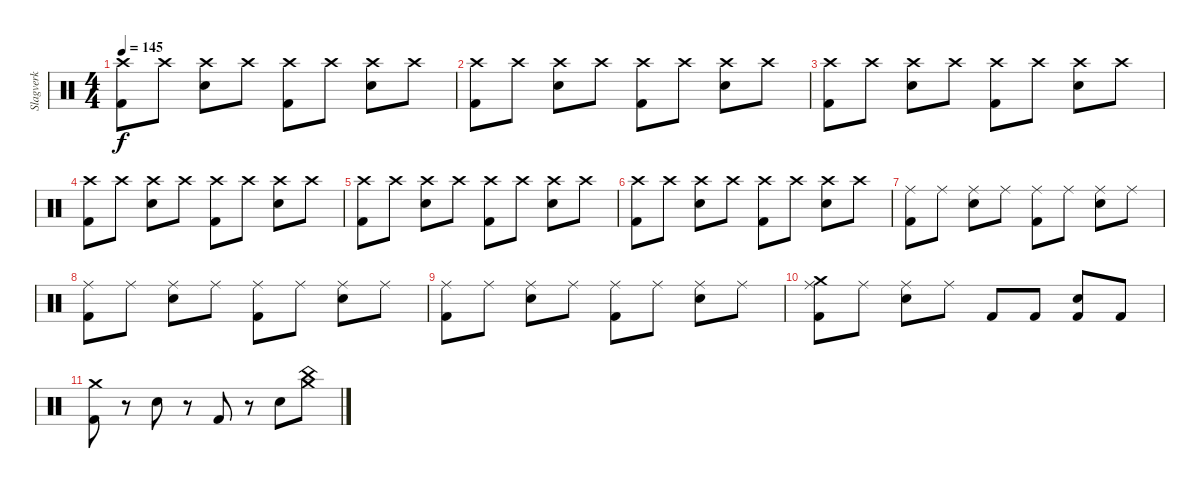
\track ("Slagverk" "Slagverk") {instrument percussion}
\staff {score}
\articulation defaults
\ts (4 4)
\tempo 145
\clef neutral
\ks c
("Crash high (hit)" "Kick (hit) 2").8{dy f} "Crash high (hit)".8 ("Crash high (hit)" "Snare (hit) 2").8 "Crash high (hit)".8 ("Crash high (hit)" "Kick (hit) 2").8 "Crash high (hit)".8 ("Crash high (hit)" "Snare (hit) 2").8 "Crash high (hit)".8 |
("Crash high (hit)" "Kick (hit) 2").8 "Crash high (hit)".8 ("Crash high (hit)" "Snare (hit) 2").8 "Crash high (hit)".8 ("Crash high (hit)" "Kick (hit) 2").8 "Crash high (hit)".8 ("Crash high (hit)" "Snare (hit) 2").8 "Crash high (hit)".8 |
("Crash high (hit)" "Kick (hit) 2").8 "Crash high (hit)".8 ("Crash high (hit)" "Snare (hit) 2").8 "Crash high (hit)".8 ("Crash high (hit)" "Kick (hit) 2").8 "Crash high (hit)".8 ("Crash high (hit)" "Snare (hit) 2").8 "Crash high (hit)".8 |
("Crash high (hit)" "Kick (hit) 2").8 "Crash high (hit)".8 ("Crash high (hit)" "Snare (hit) 2").8 "Crash high (hit)".8 ("Crash high (hit)" "Kick (hit) 2").8 "Crash high (hit)".8 ("Crash high (hit)" "Snare (hit) 2").8 "Crash high (hit)".8 |
("Crash high (hit)" "Kick (hit) 2").8 "Crash high (hit)".8 ("Crash high (hit)" "Snare (hit) 2").8 "Crash high (hit)".8 ("Crash high (hit)" "Kick (hit) 2").8 "Crash high (hit)".8 ("Crash high (hit)" "Snare (hit) 2").8 "Crash high (hit)".8 |
("Crash high (hit)" "Kick (hit) 2").8 "Crash high (hit)".8 ("Crash high (hit)" "Snare (hit) 2").8 "Crash high (hit)".8 ("Crash high (hit)" "Kick (hit) 2").8 "Crash high (hit)".8 ("Crash high (hit)" "Snare (hit) 2").8 "Crash high (hit)".8 |
("Ride (middle)" "Kick (hit) 2").8 "Ride (middle)".8 ("Ride (middle)" "Snare (hit) 2").8 "Ride (middle)".8 ("Ride (middle)" "Kick (hit) 2").8 "Ride (middle)".8 ("Ride (middle)" "Snare (hit) 2").8 "Ride (middle)".8 |
("Ride (middle)" "Kick (hit) 2").8 "Ride (middle)".8 ("Ride (middle)" "Snare (hit) 2").8 "Ride (middle)".8 ("Ride (middle)" "Kick (hit) 2").8 "Ride (middle)".8 ("Ride (middle)" "Snare (hit) 2").8 "Ride (middle)".8 |
("Ride (middle)" "Kick (hit) 2").8 "Ride (middle)".8 ("Ride (middle)" "Snare (hit) 2").8 "Ride (middle)".8 ("Ride (middle)" "Kick (hit) 2").8 "Ride (middle)".8 ("Ride (middle)" "Snare (hit) 2").8 "Ride (middle)".8 |
("Ride (middle)" "Crash medium (hit)" "Kick (hit) 2").8 "Ride (middle)".8 ("Ride (middle)" "Snare (hit) 2").8 "Ride (middle)".8 "Kick (hit) 2".8 "Kick (hit) 2".8 ("Snare (hit) 2" "Kick (hit) 2").8 "Kick (hit) 2".8 |
("Crash medium (hit)" "Kick (hit) 2").8 r.8 "Snare (hit) 2".8 r.8 "Kick (hit) 2".8 r.8 "Snare (hit) 2".8 ("Crash medium (hit)" "China (hit)").8
